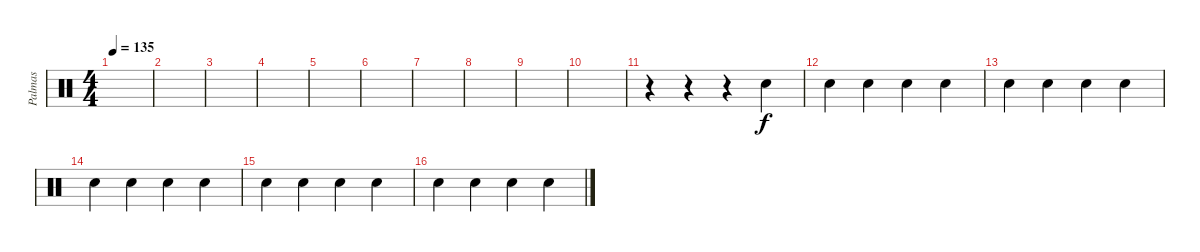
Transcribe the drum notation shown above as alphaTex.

\track ("Palmas" "Palmas") {instrument percussion}
\staff {score}
\articulation defaults
\ts (4 4)
\tempo 135
\clef neutral
\ks c
|
|
|
|
|
|
|
|
|
|
r.4 r.4 r.4 "Hand Clap (hit)".4 |
"Hand Clap (hit)".4 "Hand Clap (hit)".4 "Hand Clap (hit)".4 "Hand Clap (hit)".4 |
"Hand Clap (hit)".4 "Hand Clap (hit)".4 "Hand Clap (hit)".4 "Hand Clap (hit)".4 |
"Hand Clap (hit)".4 "Hand Clap (hit)".4 "Hand Clap (hit)".4 "Hand Clap (hit)".4 |
"Hand Clap (hit)".4 "Hand Clap (hit)".4 "Hand Clap (hit)".4 "Hand Clap (hit)".4 |
"Hand Clap (hit)".4 "Hand Clap (hit)".4 "Hand Clap (hit)".4 "Hand Clap (hit)".4
